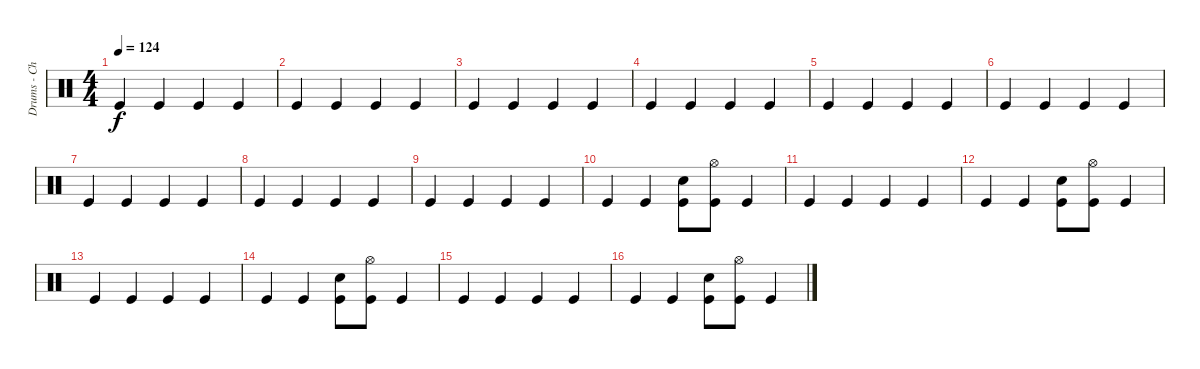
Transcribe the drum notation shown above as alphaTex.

\track ("Drums - Chris Frantz" "Drums - Ch") {instrument percussion}
\staff {score}
\articulation defaults
\ts (4 4)
\tempo 124
\clef neutral
\ks c "Kick (hit)".4{dy f} "Kick (hit)".4 "Kick (hit)".4 "Kick (hit)".4
|
"Kick (hit)".4 "Kick (hit)".4 "Kick (hit)".4 "Kick (hit)".4 |
"Kick (hit)".4 "Kick (hit)".4 "Kick (hit)".4 "Kick (hit)".4 |
"Kick (hit)".4 "Kick (hit)".4 "Kick (hit)".4 "Kick (hit)".4 |
"Kick (hit)".4 "Kick (hit)".4 "Kick (hit)".4 "Kick (hit)".4 |
"Kick (hit)".4 "Kick (hit)".4 "Kick (hit)".4 "Kick (hit)".4 |
"Kick (hit)".4 "Kick (hit)".4 "Kick (hit)".4 "Kick (hit)".4 |
"Kick (hit)".4 "Kick (hit)".4 "Kick (hit)".4 "Kick (hit)".4 |
"Kick (hit)".4 "Kick (hit)".4 "Kick (hit)".4 "Kick (hit)".4 |
"Kick (hit)".4 "Kick (hit)".4 ("Kick (hit)" "Snare (hit) 2").8 ("Kick (hit)" "Hi-Hat (open)").8 "Kick (hit)".4 |
"Kick (hit)".4 "Kick (hit)".4 "Kick (hit)".4 "Kick (hit)".4 |
"Kick (hit)".4 "Kick (hit)".4 ("Kick (hit)" "Snare (hit) 2").8 ("Kick (hit)" "Hi-Hat (open)").8 "Kick (hit)".4 |
"Kick (hit)".4 "Kick (hit)".4 "Kick (hit)".4 "Kick (hit)".4 |
"Kick (hit)".4 "Kick (hit)".4 ("Kick (hit)" "Snare (hit) 2").8 ("Kick (hit)" "Hi-Hat (open)").8 "Kick (hit)".4 |
"Kick (hit)".4 "Kick (hit)".4 "Kick (hit)".4 "Kick (hit)".4 |
"Kick (hit)".4 "Kick (hit)".4 ("Kick (hit)" "Snare (hit) 2").8 ("Kick (hit)" "Hi-Hat (open)").8 "Kick (hit)".4
